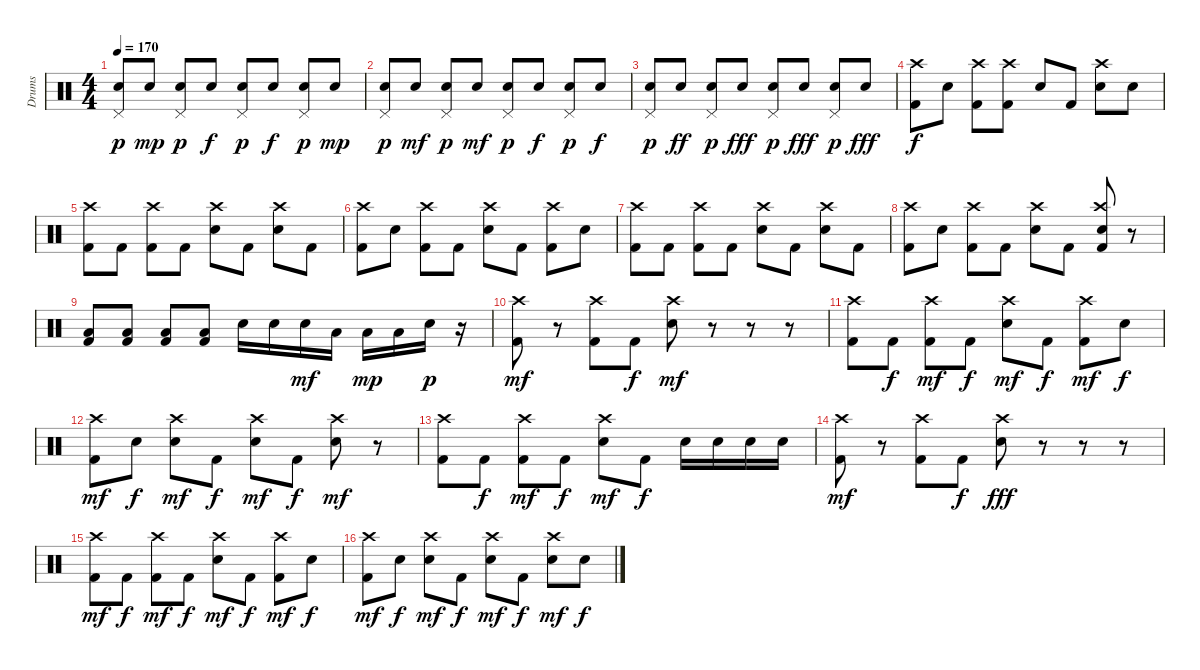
\track ("Drums" "Drums") {instrument percussion}
\staff {score}
\articulation defaults
\ts (4 4)
\tempo 170
\clef neutral
\ks c
("Snare (hit) 2" "Pedal Hi-Hat (hit)").8{dy p} "Snare (hit) 2".8{dy mp} ("Snare (hit) 2" "Pedal Hi-Hat (hit)").8{dy p} "Snare (hit) 2".8{dy f} ("Snare (hit) 2" "Pedal Hi-Hat (hit)").8{dy p} "Snare (hit) 2".8{dy f} ("Snare (hit) 2" "Pedal Hi-Hat (hit)").8{dy p} "Snare (hit) 2".8{dy mp} |
("Snare (hit) 2" "Pedal Hi-Hat (hit)").8{dy p} "Snare (hit) 2".8{dy mf} ("Snare (hit) 2" "Pedal Hi-Hat (hit)").8{dy p} "Snare (hit) 2".8{dy mf} ("Snare (hit) 2" "Pedal Hi-Hat (hit)").8{dy p} "Snare (hit) 2".8{dy f} ("Snare (hit) 2" "Pedal Hi-Hat (hit)").8{dy p} "Snare (hit) 2".8{dy f} |
("Snare (hit) 2" "Pedal Hi-Hat (hit)").8{dy p} "Snare (hit) 2".8{dy ff} ("Snare (hit) 2" "Pedal Hi-Hat (hit)").8{dy p} "Snare (hit) 2".8{dy fff} ("Snare (hit) 2" "Pedal Hi-Hat (hit)").8{dy p} "Snare (hit) 2".8{dy fff} ("Snare (hit) 2" "Pedal Hi-Hat (hit)").8{dy p} "Snare (hit) 2".8{dy fff} |
("Crash high (hit)" "Kick (hit) 2").8{dy f} "Snare (hit) 2".8 ("Crash high (hit)" "Kick (hit) 2").8 ("Crash high (hit)" "Kick (hit) 2").8 "Snare (hit) 2".8 "Kick (hit) 2".8 ("Crash high (hit)" "Snare (hit) 2").8 "Snare (hit) 2".8 |
("Crash high (hit)" "Kick (hit) 2").8 "Kick (hit) 2".8 ("Crash high (hit)" "Kick (hit) 2").8 "Kick (hit) 2".8 ("Crash high (hit)" "Snare (hit) 2").8 "Kick (hit) 2".8 ("Crash high (hit)" "Snare (hit) 2").8 "Kick (hit) 2".8 |
("Crash high (hit)" "Kick (hit) 2").8 "Snare (hit) 2".8 ("Crash high (hit)" "Kick (hit) 2").8 "Kick (hit) 2".8 ("Crash high (hit)" "Snare (hit) 2").8 "Kick (hit) 2".8 ("Crash high (hit)" "Kick (hit) 2").8 "Snare (hit) 2".8 |
("Crash high (hit)" "Kick (hit) 2").8 "Kick (hit) 2".8 ("Crash high (hit)" "Kick (hit) 2").8 "Kick (hit) 2".8 ("Crash high (hit)" "Snare (hit) 2").8 "Kick (hit) 2".8 ("Crash high (hit)" "Snare (hit) 2").8 "Kick (hit) 2".8 |
("Crash high (hit)" "Kick (hit) 2").8 "Snare (hit) 2".8 ("Crash high (hit)" "Kick (hit) 2").8 "Kick (hit) 2".8 ("Crash high (hit)" "Snare (hit) 2").8 "Kick (hit) 2".8 ("Crash high (hit)" "Snare (hit) 2" "Kick (hit) 2").8 r.8 |
("Low Floor Tom (hit)" "Kick (hit) 2").8 ("Low Floor Tom (hit)" "Kick (hit) 2").8 ("Low Floor Tom (hit)" "Kick (hit) 2").8 ("Low Floor Tom (hit)" "Kick (hit) 2").8 "Snare (hit) 2".16 "Snare (hit) 2".16 "Snare (hit) 2".16{dy mf} "Low Floor Tom (hit)".16 "Low Floor Tom (hit)".16{dy mp} "Low Floor Tom (hit)".16 "Snare (hit) 2".16{dy p} r.16 |
("Crash high (hit)" "Kick (hit) 2").8{dy mf} r.8 ("Crash high (hit)" "Kick (hit) 2").8 "Kick (hit) 2".8{dy f} ("Crash high (hit)" "Snare (hit) 2").8{dy mf} r.8 r.8 r.8 |
("Crash high (hit)" "Kick (hit) 2").8 "Kick (hit) 2".8{dy f} ("Crash high (hit)" "Kick (hit) 2").8{dy mf} "Kick (hit) 2".8{dy f} ("Crash high (hit)" "Snare (hit) 2").8{dy mf} "Kick (hit) 2".8{dy f} ("Crash high (hit)" "Kick (hit) 2").8{dy mf} "Snare (hit) 2".8{dy f} |
("Crash high (hit)" "Kick (hit) 2").8{dy mf} "Snare (hit) 2".8{dy f} ("Crash high (hit)" "Snare (hit) 2").8{dy mf} "Kick (hit) 2".8{dy f} ("Crash high (hit)" "Snare (hit) 2").8{dy mf} "Kick (hit) 2".8{dy f} ("Crash high (hit)" "Snare (hit) 2").8{dy mf} r.8 |
("Crash high (hit)" "Kick (hit) 2").8 "Kick (hit) 2".8{dy f} ("Crash high (hit)" "Kick (hit) 2").8{dy mf} "Kick (hit) 2".8{dy f} ("Crash high (hit)" "Snare (hit) 2").8{dy mf} "Kick (hit) 2".8{dy f} "Snare (hit) 2".16 "Snare (hit) 2".16 "Snare (hit) 2".16 "Snare (hit) 2".16 |
("Crash high (hit)" "Kick (hit) 2").8{dy mf} r.8 ("Crash high (hit)" "Kick (hit) 2").8 "Kick (hit) 2".8{dy f} ("Crash high (hit)" "Snare (hit) 2").8{dy fff} r.8 r.8 r.8 |
("Crash high (hit)" "Kick (hit) 2").8{dy mf} "Kick (hit) 2".8{dy f} ("Crash high (hit)" "Kick (hit) 2").8{dy mf} "Kick (hit) 2".8{dy f} ("Crash high (hit)" "Snare (hit) 2").8{dy mf} "Kick (hit) 2".8{dy f} ("Crash high (hit)" "Kick (hit) 2").8{dy mf} "Snare (hit) 2".8{dy f} |
("Crash high (hit)" "Kick (hit) 2").8{dy mf} "Snare (hit) 2".8{dy f} ("Crash high (hit)" "Snare (hit) 2").8{dy mf} "Kick (hit) 2".8{dy f} ("Crash high (hit)" "Snare (hit) 2").8{dy mf} "Kick (hit) 2".8{dy f} ("Crash high (hit)" "Snare (hit) 2").8{dy mf} "Snare (hit) 2".8{dy f}
